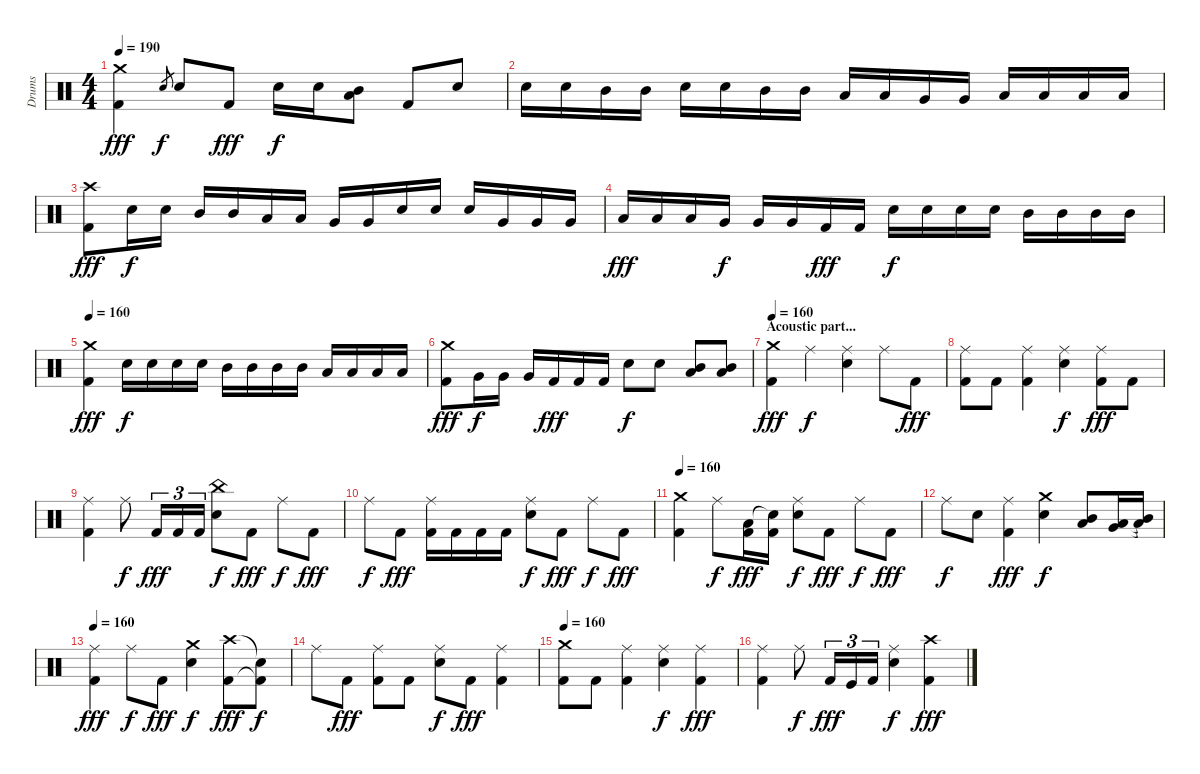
\track ("Drums" "Drums") {instrument percussion}
\staff {score}
\articulation defaults
\ts (4 4)
\tempo 190
\clef neutral
\ks c
("Crash medium (hit)" "Kick (hit) 2").4{dy fff} "Snare (hit) 2".8{gr dy f} "Snare (hit) 2".8 "Kick (hit) 2".8{dy fff} "Snare (hit) 2".16{dy f} "Snare (hit) 2".16 ("Mid Tom (hit)" "Low Tom (hit)").8 "Kick (hit) 2".8 "Snare (hit) 2".8 |
"Snare (hit) 2".16 "Snare (hit) 2".16 "Mid Tom (hit)".16 "Mid Tom (hit)".16 "Snare (hit) 2".16 "Snare (hit) 2".16 "Mid Tom (hit)".16 "Mid Tom (hit)".16 "Low Tom (hit)".16 "Low Tom (hit)".16 "Very Low Tom (hit)".16 "Very Low Tom (hit)".16 "Low Floor Tom (hit)".16 "Low Floor Tom (hit)".16 "Low Floor Tom (hit)".16 "Low Floor Tom (hit)".16 |
("Crash high (hit)" "Kick (hit) 2").8{dy fff} "Snare (hit) 2".16{dy f} "Snare (hit) 2".16 "Mid Tom (hit)".16 "Mid Tom (hit)".16 "Low Tom (hit)".16 "Low Tom (hit)".16 "Very Low Tom (hit)".16 "Very Low Tom (hit)".16 "Snare (hit) 2".16 "Snare (hit) 2".16 "Snare (hit) 2".16 "Very Low Tom (hit)".16 "Very Low Tom (hit)".16 "Very Low Tom (hit)".16 |
"Low Floor Tom (hit)".16{dy fff} "Low Floor Tom (hit)".16 "Low Floor Tom (hit)".16 "Very Low Tom (hit)".16{dy f} "Very Low Tom (hit)".16 "Very Low Tom (hit)".16 "Kick (hit) 2".16{dy fff} "Kick (hit) 2".16 "Snare (hit) 2".16{dy f} "Snare (hit) 2".16 "Snare (hit) 2".16 "Snare (hit) 2".16 "Mid Tom (hit)".16 "Mid Tom (hit)".16 "Mid Tom (hit)".16 "Mid Tom (hit)".16 |
\tempo 160
("Crash medium (hit)" "Kick (hit) 2").4{dy fff} "Snare (hit) 2".16{dy f} "Snare (hit) 2".16 "Snare (hit) 2".16 "Snare (hit) 2".16 "Mid Tom (hit)".16 "Mid Tom (hit)".16 "Mid Tom (hit)".16 "Mid Tom (hit)".16 "Low Tom (hit)".16 "Low Tom (hit)".16 "Low Tom (hit)".16 "Low Tom (hit)".16 |
("Crash medium (hit)" "Kick (hit) 2").8{dy fff} "Very Low Tom (hit)".16{dy f} "Very Low Tom (hit)".16 "Very Low Tom (hit)".16 "Kick (hit) 2".16{dy fff} "Kick (hit) 2".16 "Kick (hit) 2".16 "Snare (hit) 2".8{dy f} "Snare (hit) 2".8 ("Mid Tom (hit)" "Low Tom (hit)").8 ("Mid Tom (hit)" "Low Tom (hit)").8 |
\section ("" "Acoustic part...")
\tempo 160
("Crash medium (hit)" "Kick (hit) 2").4{dy fff} "Ride (middle)".4{dy f} ("Ride (middle)" "Snare (hit) 2").4 "Ride (middle)".8 "Kick (hit) 2".8{dy fff} |
("Ride (middle)" "Kick (hit) 2").8 "Kick (hit) 2".8 ("Ride (middle)" "Kick (hit) 2").4 ("Ride (middle)" "Snare (hit) 2").4{dy f} ("Ride (middle)" "Kick (hit) 2").8{dy fff} "Kick (hit) 2".8 |
("Ride (middle)" "Kick (hit) 2").4 "Ride (middle)".8{dy f} "Kick (hit) 2".16{tu (3 2) dy fff} "Kick (hit) 2".16{tu (3 2)} "Kick (hit) 2".16{tu (3 2)} ("China (hit)" "Snare (hit) 2").8{dy f} "Kick (hit) 2".8{dy fff} "Ride (middle)".8{dy f} "Kick (hit) 2".8{dy fff} |
"Ride (middle)".8{dy f} "Kick (hit) 2".8{dy fff} ("Ride (middle)" "Kick (hit) 2").16 "Kick (hit) 2".16 "Kick (hit) 2".16 "Kick (hit) 2".16 ("Ride (middle)" "Snare (hit) 2").8{dy f} "Kick (hit) 2".8{dy fff} "Ride (middle)".8{dy f} "Kick (hit) 2".8{dy fff} |
\tempo 160
("Crash medium (hit)" "Kick (hit) 2").4 "Ride (middle)".8{dy f} ("Low Tom (hit)" "Kick (hit) 2").16{dy fff} ("Snare (hit)"{t} "Kick (hit) 2").16 ("Ride (middle)" "Snare (hit) 2").8{dy f} "Kick (hit) 2".8{dy fff} "Ride (middle)".8{dy f} "Kick (hit) 2".8{dy fff} |
"Ride (middle)".8{dy f} "Snare (hit) 2".8 ("Ride (middle)" "Kick (hit) 2").4{dy fff} ("Crash medium (hit)" "Snare (hit) 2").4{dy f} ("Mid Tom (hit)" "Low Tom (hit)").8 ("Low Tom (hit)" "Very Low Tom (hit)").16 ("Mid Tom (hit)"{t} "Low Tom (hit)"{t}).16 |
\tempo 160
("Ride (middle)" "Kick (hit) 2").4{dy fff} "Ride (middle)".8{dy f} "Kick (hit) 2".8{dy fff} ("Crash medium (hit)" "Snare (hit) 2").4{dy f} ("Crash high (hit)" "Kick (hit) 2").8{dy fff} ("Snare (hit)"{t} "Kick (hit) 2"{t}).8{dy f} |
"Ride (middle)".8 "Kick (hit) 2".8{dy fff} ("Ride (middle)" "Kick (hit) 2").8 "Kick (hit) 2".8 ("Ride (middle)" "Snare (hit) 2").8{dy f} "Kick (hit) 2".8{dy fff} ("Ride (middle)" "Kick (hit) 2").4 |
\tempo 160
("Crash medium (hit)" "Kick (hit) 2").8 "Kick (hit) 2".8 ("Ride (middle)" "Kick (hit) 2").4 ("Ride (middle)" "Snare (hit) 2").4{dy f} ("Ride (middle)" "Kick (hit) 2").4{dy fff} |
("Ride (middle)" "Kick (hit) 2").4 "Ride (middle)".8{dy f} "Kick (hit) 2".16{tu (3 2) dy fff} "Kick (hit)".16{tu (3 2)} "Kick (hit) 2".16{tu (3 2)} ("Ride (middle)" "Snare (hit) 2").4{dy f} ("Crash high (hit)" "Kick (hit) 2").4{dy fff}
